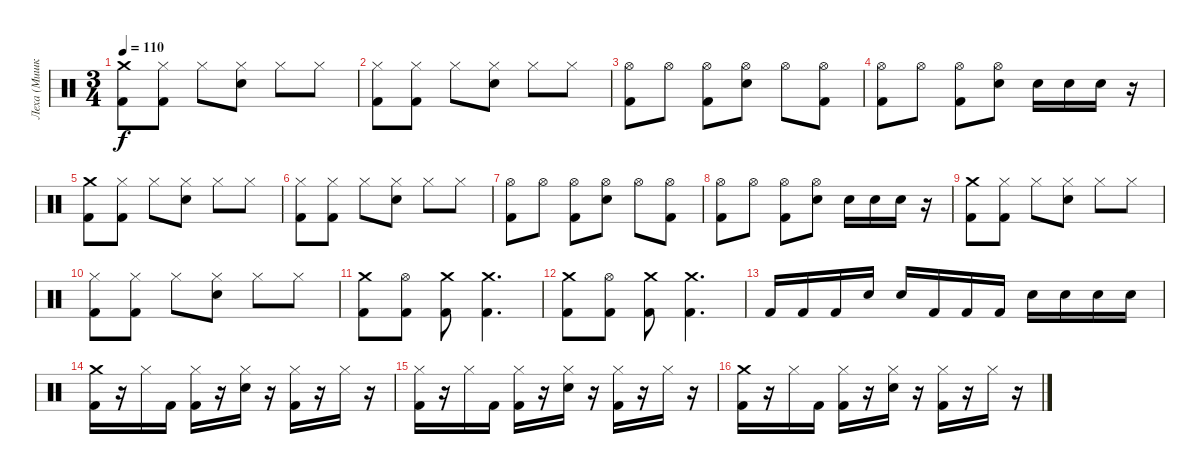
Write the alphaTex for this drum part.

\track ("Леха (Мишка Гами)" "Леха (Мишк") {instrument percussion}
\staff {score}
\articulation defaults
\ts (3 4)
\tempo 110
\clef neutral
\ks c
("Crash medium (hit)" "Kick (hit) 2").8{dy f} ("Hi-Hat (closed)" "Kick (hit) 2").8 "Hi-Hat (closed)".8 ("Hi-Hat (closed)" "Snare (hit) 2").8 "Hi-Hat (closed)".8 "Hi-Hat (closed)".8 |
("Hi-Hat (closed)" "Kick (hit) 2").8 ("Hi-Hat (closed)" "Kick (hit) 2").8 "Hi-Hat (closed)".8 ("Hi-Hat (closed)" "Snare (hit) 2").8 "Hi-Hat (closed)".8 "Hi-Hat (closed)".8 |
("Hi-Hat (open)" "Kick (hit) 2").8 "Hi-Hat (open)".8 ("Hi-Hat (open)" "Kick (hit) 2").8 ("Hi-Hat (open)" "Snare (hit) 2").8 "Hi-Hat (open)".8 ("Hi-Hat (open)" "Kick (hit) 2").8 |
("Hi-Hat (open)" "Kick (hit) 2").8 "Hi-Hat (open)".8 ("Hi-Hat (open)" "Kick (hit) 2").8 ("Hi-Hat (open)" "Snare (hit) 2").8 "Snare (hit) 2".16 "Snare (hit) 2".16 "Snare (hit) 2".16 r.16 |
("Crash medium (hit)" "Kick (hit) 2").8 ("Hi-Hat (closed)" "Kick (hit) 2").8 "Hi-Hat (closed)".8 ("Hi-Hat (closed)" "Snare (hit) 2").8 "Hi-Hat (closed)".8 "Hi-Hat (closed)".8 |
("Hi-Hat (closed)" "Kick (hit) 2").8 ("Hi-Hat (closed)" "Kick (hit) 2").8 "Hi-Hat (closed)".8 ("Hi-Hat (closed)" "Snare (hit) 2").8 "Hi-Hat (closed)".8 "Hi-Hat (closed)".8 |
("Hi-Hat (open)" "Kick (hit) 2").8 "Hi-Hat (open)".8 ("Hi-Hat (open)" "Kick (hit) 2").8 ("Hi-Hat (open)" "Snare (hit) 2").8 "Hi-Hat (open)".8 ("Hi-Hat (open)" "Kick (hit) 2").8 |
("Hi-Hat (open)" "Kick (hit) 2").8 "Hi-Hat (open)".8 ("Hi-Hat (open)" "Kick (hit) 2").8 ("Hi-Hat (open)" "Snare (hit) 2").8 "Snare (hit) 2".16 "Snare (hit) 2".16 "Snare (hit) 2".16 r.16 |
("Crash medium (hit)" "Kick (hit) 2").8 ("Hi-Hat (closed)" "Kick (hit) 2").8 "Hi-Hat (closed)".8 ("Hi-Hat (closed)" "Snare (hit) 2").8 "Hi-Hat (closed)".8 "Hi-Hat (closed)".8 |
("Hi-Hat (closed)" "Kick (hit) 2").8 ("Hi-Hat (closed)" "Kick (hit) 2").8 "Hi-Hat (closed)".8 ("Hi-Hat (closed)" "Snare (hit) 2").8 "Hi-Hat (closed)".8 "Hi-Hat (closed)".8 |
("Crash medium (hit)" "Kick (hit) 2").8 ("Hi-Hat (open)" "Kick (hit) 2").8 ("Crash medium (hit)" "Kick (hit) 2").8 ("Crash medium (hit)" "Kick (hit) 2").4{d} |
("Crash medium (hit)" "Kick (hit) 2").8 ("Hi-Hat (open)" "Kick (hit) 2").8 ("Crash medium (hit)" "Kick (hit) 2").8 ("Crash medium (hit)" "Kick (hit) 2").4{d} |
"Kick (hit) 2".16 "Kick (hit) 2".16 "Kick (hit) 2".16 "Snare (hit)".16 "Snare (hit)".16 "Kick (hit) 2".16 "Kick (hit) 2".16 "Kick (hit) 2".16 "Snare (hit)".16 "Snare (hit)".16 "Snare (hit)".16 "Snare (hit)".16 |
("Crash medium (hit)" "Kick (hit) 2").16 r.16 "Hi-Hat (closed)".16 "Kick (hit) 2".16 ("Hi-Hat (closed)" "Kick (hit) 2").16 r.16 ("Hi-Hat (closed)" "Snare (hit) 2").16 r.16 ("Hi-Hat (closed)" "Kick (hit) 2").16 r.16 "Hi-Hat (closed)".16 r.16 |
("Hi-Hat (closed)" "Kick (hit) 2").16 r.16 "Hi-Hat (closed)".16 "Kick (hit) 2".16 ("Hi-Hat (closed)" "Kick (hit) 2").16 r.16 ("Hi-Hat (closed)" "Snare (hit) 2").16 r.16 ("Hi-Hat (closed)" "Kick (hit) 2").16 r.16 "Hi-Hat (closed)".16 r.16 |
("Crash medium (hit)" "Kick (hit) 2").16 r.16 "Hi-Hat (closed)".16 "Kick (hit) 2".16 ("Hi-Hat (closed)" "Kick (hit) 2").16 r.16 ("Hi-Hat (closed)" "Snare (hit) 2").16 r.16 ("Hi-Hat (closed)" "Kick (hit) 2").16 r.16 "Hi-Hat (closed)".16 r.16
